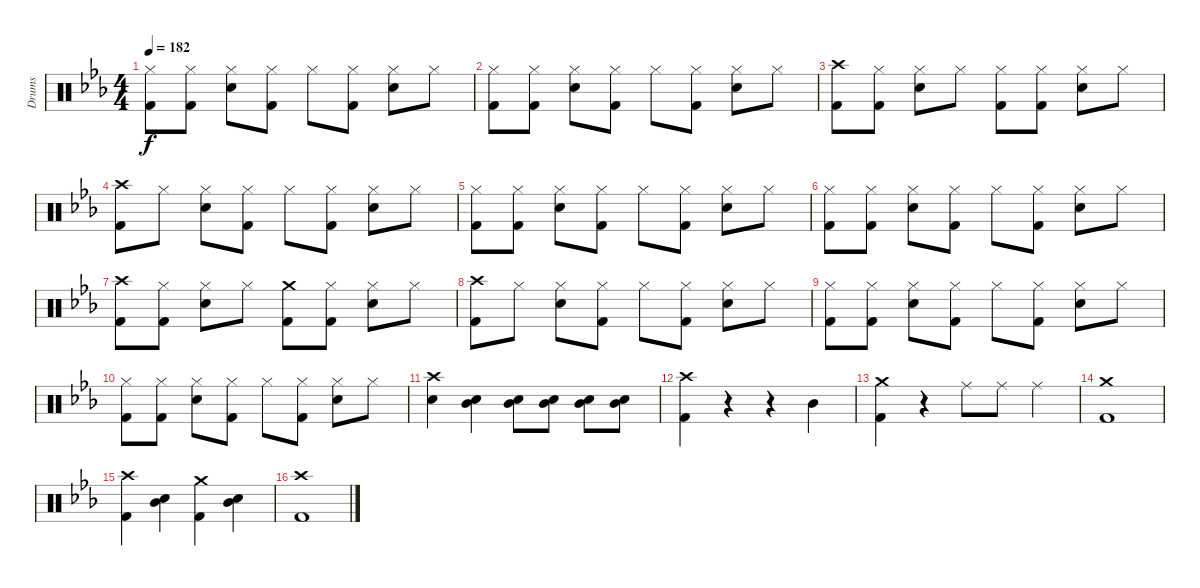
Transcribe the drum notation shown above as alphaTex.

\track ("Drums" "Drums") {instrument percussion}
\staff {score}
\articulation defaults
\ts (4 4)
\tempo 182
\clef neutral
\ks eb
("Hi-Hat (closed)" "Kick (hit) 2").8{dy f} ("Hi-Hat (closed)" "Kick (hit) 2").8 ("Hi-Hat (closed)" "Snare (hit) 2").8 ("Hi-Hat (closed)" "Kick (hit) 2").8 "Hi-Hat (closed)".8 ("Hi-Hat (closed)" "Kick (hit) 2").8 ("Hi-Hat (closed)" "Snare (hit) 2").8 "Hi-Hat (closed)".8 |
("Hi-Hat (closed)" "Kick (hit) 2").8 ("Hi-Hat (closed)" "Kick (hit) 2").8 ("Hi-Hat (closed)" "Snare (hit) 2").8 ("Hi-Hat (closed)" "Kick (hit) 2").8 "Hi-Hat (closed)".8 ("Hi-Hat (closed)" "Kick (hit) 2").8 ("Hi-Hat (closed)" "Snare (hit) 2").8 "Hi-Hat (closed)".8 |
("Crash high (hit)" "Kick (hit) 2").8 ("Hi-Hat (closed)" "Kick (hit) 2").8 ("Hi-Hat (closed)" "Snare (hit) 2").8 "Hi-Hat (closed)".8 ("Hi-Hat (closed)" "Kick (hit) 2").8 ("Hi-Hat (closed)" "Kick (hit) 2").8 ("Hi-Hat (closed)" "Snare (hit) 2").8 "Hi-Hat (closed)".8 |
("Crash high (hit)" "Kick (hit) 2").8 "Hi-Hat (closed)".8 ("Hi-Hat (closed)" "Snare (hit) 2").8 ("Hi-Hat (closed)" "Kick (hit) 2").8 "Hi-Hat (closed)".8 ("Hi-Hat (closed)" "Kick (hit) 2").8 ("Hi-Hat (closed)" "Snare (hit) 2").8 "Hi-Hat (closed)".8 |
("Hi-Hat (closed)" "Kick (hit) 2").8 ("Hi-Hat (closed)" "Kick (hit) 2").8 ("Hi-Hat (closed)" "Snare (hit) 2").8 ("Hi-Hat (closed)" "Kick (hit) 2").8 "Hi-Hat (closed)".8 ("Hi-Hat (closed)" "Kick (hit) 2").8 ("Hi-Hat (closed)" "Snare (hit) 2").8 "Hi-Hat (closed)".8 |
("Hi-Hat (closed)" "Kick (hit) 2").8 ("Hi-Hat (closed)" "Kick (hit) 2").8 ("Hi-Hat (closed)" "Snare (hit) 2").8 ("Hi-Hat (closed)" "Kick (hit) 2").8 "Hi-Hat (closed)".8 ("Hi-Hat (closed)" "Kick (hit) 2").8 ("Hi-Hat (closed)" "Snare (hit) 2").8 "Hi-Hat (closed)".8 |
("Crash high (hit)" "Kick (hit) 2").8 ("Hi-Hat (closed)" "Kick (hit) 2").8 ("Hi-Hat (closed)" "Snare (hit) 2").8 "Hi-Hat (closed)".8 ("Crash medium (hit)" "Kick (hit) 2").8 ("Hi-Hat (closed)" "Kick (hit) 2").8 ("Hi-Hat (closed)" "Snare (hit) 2").8 "Hi-Hat (closed)".8 |
("Crash high (hit)" "Kick (hit) 2").8 "Hi-Hat (closed)".8 ("Hi-Hat (closed)" "Snare (hit) 2").8 ("Hi-Hat (closed)" "Kick (hit) 2").8 "Hi-Hat (closed)".8 ("Hi-Hat (closed)" "Kick (hit) 2").8 ("Hi-Hat (closed)" "Snare (hit) 2").8 "Hi-Hat (closed)".8 |
("Hi-Hat (closed)" "Kick (hit) 2").8 ("Hi-Hat (closed)" "Kick (hit) 2").8 ("Hi-Hat (closed)" "Snare (hit) 2").8 ("Hi-Hat (closed)" "Kick (hit) 2").8 "Hi-Hat (closed)".8 ("Hi-Hat (closed)" "Kick (hit) 2").8 ("Hi-Hat (closed)" "Snare (hit) 2").8 "Hi-Hat (closed)".8 |
("Hi-Hat (closed)" "Kick (hit) 2").8 ("Hi-Hat (closed)" "Kick (hit) 2").8 ("Hi-Hat (closed)" "Snare (hit) 2").8 ("Hi-Hat (closed)" "Kick (hit) 2").8 "Hi-Hat (closed)".8 ("Hi-Hat (closed)" "Kick (hit) 2").8 ("Hi-Hat (closed)" "Snare (hit) 2").8 "Hi-Hat (closed)".8 |
("Crash high (hit)" "Snare (hit) 2").4 ("Mid Tom (hit)" "Snare (hit) 2").4 ("Mid Tom (hit)" "Snare (hit) 2").8 ("Mid Tom (hit)" "Snare (hit) 2").8 ("Mid Tom (hit)" "Snare (hit) 2").8 ("Mid Tom (hit)" "Snare (hit) 2").8 |
("Crash high (hit)" "Kick (hit) 2").4 r.4 r.4 "Mid Tom (hit)".4 |
("Crash medium (hit)" "Kick (hit) 2").4 r.4 "Ride (middle)".8 "Ride (middle)".8 "Ride (middle)".4 |
("Crash medium (hit)" "Kick (hit) 2").1 |
("Crash high (hit)" "Kick (hit) 2").4 ("Mid Tom (hit)" "Snare (hit) 2").4 ("Crash medium (hit)" "Kick (hit) 2").4 ("Mid Tom (hit)" "Snare (hit) 2").4 |
("Crash high (hit)" "Kick (hit) 2").1
